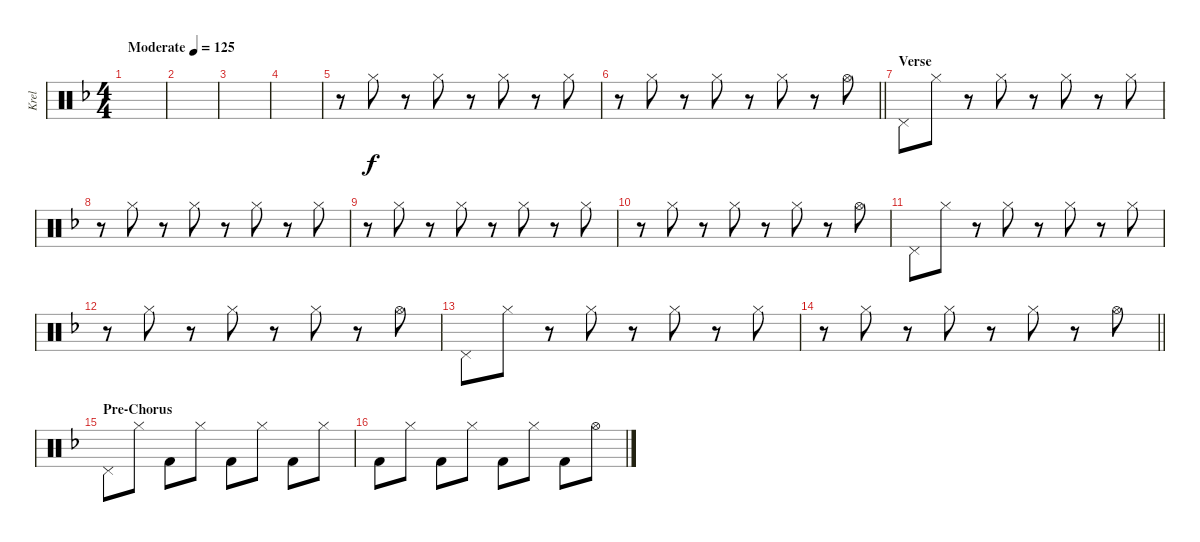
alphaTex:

\track ("Krel" "Krel") {instrument percussion}
\staff {score}
\articulation defaults
\ts (4 4)
\tempo (125 "Moderate")
\clef neutral
\ks f
|
|
|
|
r.8 "Hi-Hat (closed)".8 r.8 "Hi-Hat (closed)".8 r.8 "Hi-Hat (closed)".8 r.8 "Hi-Hat (closed)".8 |
\barLineRight lightlight
r.8 "Hi-Hat (closed)".8 r.8 "Hi-Hat (closed)".8 r.8 "Hi-Hat (closed)".8 r.8 "Hi-Hat (open)".8 |
\section ("" "Verse")
"Pedal Hi-Hat (hit)".8 "Hi-Hat (closed)".8 r.8 "Hi-Hat (closed)".8 r.8 "Hi-Hat (closed)".8 r.8 "Hi-Hat (closed)".8 |
r.8 "Hi-Hat (closed)".8 r.8 "Hi-Hat (closed)".8 r.8 "Hi-Hat (closed)".8 r.8 "Hi-Hat (closed)".8 |
r.8 "Hi-Hat (closed)".8 r.8 "Hi-Hat (closed)".8 r.8 "Hi-Hat (closed)".8 r.8 "Hi-Hat (closed)".8 |
r.8 "Hi-Hat (closed)".8 r.8 "Hi-Hat (closed)".8 r.8 "Hi-Hat (closed)".8 r.8 "Hi-Hat (open)".8 |
"Pedal Hi-Hat (hit)".8 "Hi-Hat (closed)".8 r.8 "Hi-Hat (closed)".8 r.8 "Hi-Hat (closed)".8 r.8 "Hi-Hat (closed)".8 |
r.8 "Hi-Hat (closed)".8 r.8 "Hi-Hat (closed)".8 r.8 "Hi-Hat (closed)".8 r.8 "Hi-Hat (open)".8 |
"Pedal Hi-Hat (hit)".8 "Hi-Hat (closed)".8 r.8 "Hi-Hat (closed)".8 r.8 "Hi-Hat (closed)".8 r.8 "Hi-Hat (closed)".8 |
\barLineRight lightlight
r.8 "Hi-Hat (closed)".8 r.8 "Hi-Hat (closed)".8 r.8 "Hi-Hat (closed)".8 r.8 "Hi-Hat (open)".8 |
\section ("" "Pre-Chorus")
"Pedal Hi-Hat (hit)".8 "Hi-Hat (closed)".8 "Kick (hit) 2".8 "Hi-Hat (closed)".8 "Kick (hit) 2".8 "Hi-Hat (closed)".8 "Kick (hit) 2".8 "Hi-Hat (closed)".8 |
"Kick (hit) 2".8 "Hi-Hat (closed)".8 "Kick (hit) 2".8 "Hi-Hat (closed)".8 "Kick (hit) 2".8 "Hi-Hat (closed)".8 "Kick (hit) 2".8 "Hi-Hat (open)".8
